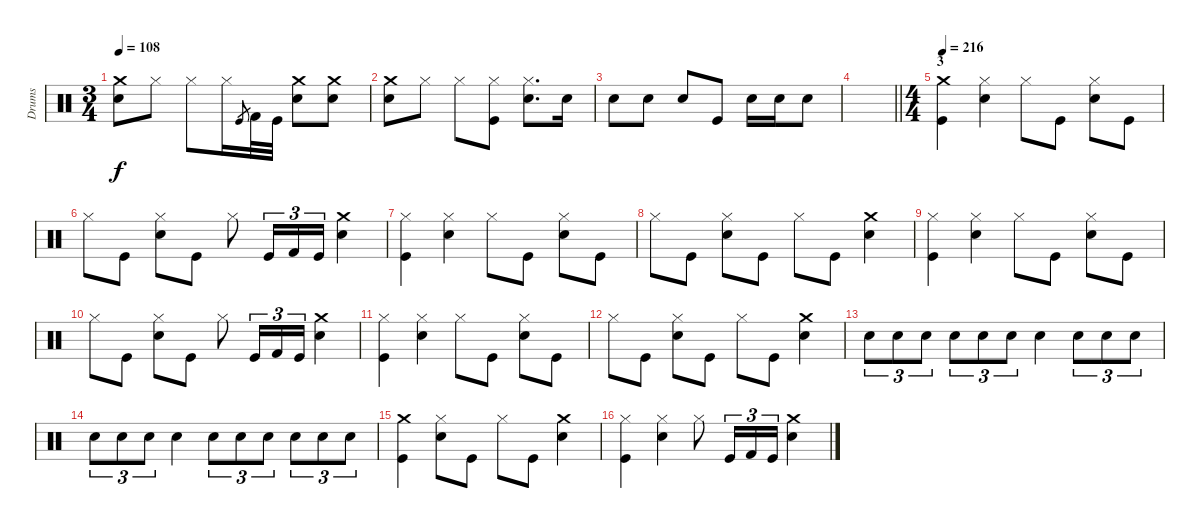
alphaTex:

\track ("Drums" "Drums") {instrument percussion}
\staff {score}
\articulation defaults
\ts (3 4)
\tempo 108
\clef neutral
\ks c
("Crash medium (hit)" "Snare (hit) 2").8{dy f} "Hi-Hat (closed)".8 "Hi-Hat (closed)".8 "Hi-Hat (closed)".16 "Kick (hit)".8{gr} "Kick (hit) 2".32 "Kick (hit)".32 ("Crash medium (hit)" "Snare (hit) 2").8 ("Crash medium (hit)" "Snare (hit) 2").8 |
("Crash medium (hit)" "Snare (hit) 2").8 "Hi-Hat (closed)".8 "Hi-Hat (closed)".8 ("Kick (hit)" "Hi-Hat (closed)").8 ("Hi-Hat (closed)" "Snare (hit) 2").8{d} "Snare (hit) 2".16 |
"Snare (hit) 2".8 "Snare (hit) 2".8 "Snare (hit) 2".8 "Kick (hit)".8 "Snare (hit) 2".16 "Snare (hit) 2".16 "Snare (hit) 2".8 |
\barLineRight lightlight
|
\ts (4 4)
\section ("" "3")
\tempo 216
("Crash medium (hit)" "Kick (hit)").4 ("Hi-Hat (closed)" "Snare (hit) 2").4 "Hi-Hat (closed)".8 "Kick (hit)".8 ("Snare (hit) 2" "Hi-Hat (closed)").8 "Kick (hit)".8 |
"Hi-Hat (closed)".8 "Kick (hit)".8 ("Snare (hit) 2" "Hi-Hat (closed)").8 "Kick (hit)".8 "Hi-Hat (closed)".8 "Kick (hit)".16{tu (3 2)} "Kick (hit) 2".16{tu (3 2)} "Kick (hit)".16{tu (3 2)} ("Crash medium (hit)" "Snare (hit) 2").4 |
("Kick (hit)" "Hi-Hat (closed)").4 ("Hi-Hat (closed)" "Snare (hit) 2").4 "Hi-Hat (closed)".8 "Kick (hit)".8 ("Snare (hit) 2" "Hi-Hat (closed)").8 "Kick (hit)".8 |
"Hi-Hat (closed)".8 "Kick (hit)".8 ("Snare (hit) 2" "Hi-Hat (closed)").8 "Kick (hit)".8 "Hi-Hat (closed)".8 "Kick (hit)".8 ("Crash medium (hit)" "Snare (hit) 2").4 |
("Hi-Hat (closed)" "Kick (hit)").4 ("Snare (hit) 2" "Hi-Hat (closed)").4 "Hi-Hat (closed)".8 "Kick (hit)".8 ("Snare (hit) 2" "Hi-Hat (closed)").8 "Kick (hit)".8 |
"Hi-Hat (closed)".8 "Kick (hit)".8 ("Snare (hit) 2" "Hi-Hat (closed)").8 "Kick (hit)".8 "Hi-Hat (closed)".8 "Kick (hit)".16{tu (3 2)} "Kick (hit) 2".16{tu (3 2)} "Kick (hit)".16{tu (3 2)} ("Crash medium (hit)" "Snare (hit) 2").4 |
("Kick (hit)" "Hi-Hat (closed)").4 ("Snare (hit) 2" "Hi-Hat (closed)").4 "Hi-Hat (closed)".8 "Kick (hit)".8 ("Snare (hit) 2" "Hi-Hat (closed)").8 "Kick (hit)".8 |
"Hi-Hat (closed)".8 "Kick (hit)".8 ("Snare (hit) 2" "Hi-Hat (closed)").8 "Kick (hit)".8 "Hi-Hat (closed)".8 "Kick (hit)".8 ("Crash medium (hit)" "Snare (hit) 2").4 |
"Snare (hit) 2".8{tu (3 2)} "Snare (hit) 2".8{tu (3 2)} "Snare (hit) 2".8{tu (3 2)} "Snare (hit) 2".8{tu (3 2)} "Snare (hit) 2".8{tu (3 2)} "Snare (hit) 2".8{tu (3 2)} "Snare (hit) 2".4 "Snare (hit) 2".8{tu (3 2)} "Snare (hit) 2".8{tu (3 2)} "Snare (hit) 2".8{tu (3 2)} |
"Snare (hit) 2".8{tu (3 2)} "Snare (hit) 2".8{tu (3 2)} "Snare (hit) 2".8{tu (3 2)} "Snare (hit) 2".4 "Snare (hit) 2".8{tu (3 2)} "Snare (hit) 2".8{tu (3 2)} "Snare (hit) 2".8{tu (3 2)} "Snare (hit) 2".8{tu (3 2)} "Snare (hit) 2".8{tu (3 2)} "Snare (hit) 2".8{tu (3 2)} |
("Kick (hit)" "Crash medium (hit)").4 ("Hi-Hat (closed)" "Snare (hit) 2").8 "Kick (hit)".8 "Hi-Hat (closed)".8 "Kick (hit)".8 ("Crash medium (hit)" "Snare (hit) 2").4 |
("Hi-Hat (closed)" "Kick (hit)").4 ("Snare (hit) 2" "Hi-Hat (closed)").4 "Hi-Hat (closed)".8 "Kick (hit)".16{tu (3 2)} "Kick (hit) 2".16{tu (3 2)} "Kick (hit)".16{tu (3 2)} ("Crash medium (hit)" "Snare (hit) 2").4
